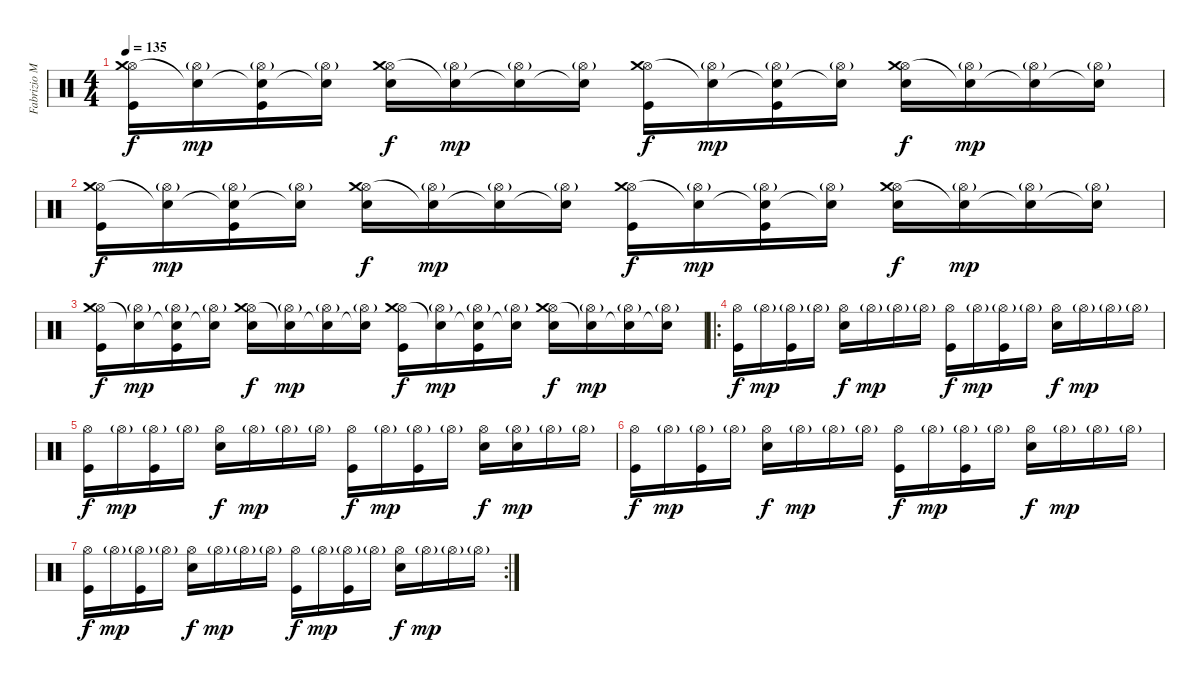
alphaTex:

\track ("Fabrizio Moretti" "Fabrizio M") {instrument percussion}
\staff {score}
\articulation defaults
\ts (4 4)
\tempo 135
\clef neutral
\ks c
("Hi-Hat (open)" "Crash medium (hit)" "Kick (hit)").16{dy f} ("Hi-Hat (open)"{g} "Snare (hit)"{t}).16{dy mp} ("Hi-Hat (open)"{g} "Snare (hit)"{t} "Kick (hit)").16 ("Hi-Hat (open)"{g} "Snare (hit)"{t}).16 ("Hi-Hat (open)" "Crash medium (hit)" "Electric Snare (hit)").16{dy f} ("Hi-Hat (open)"{g} "Snare (hit)"{t}).16{dy mp} ("Hi-Hat (open)"{g} "Snare (hit)"{t}).16 ("Hi-Hat (open)"{g} "Snare (hit)"{t}).16 ("Hi-Hat (open)" "Crash medium (hit)" "Kick (hit)").16{dy f} ("Hi-Hat (open)"{g} "Snare (hit)"{t}).16{dy mp} ("Hi-Hat (open)"{g} "Snare (hit)"{t} "Kick (hit)").16 ("Hi-Hat (open)"{g} "Snare (hit)"{t}).16 ("Hi-Hat (open)" "Crash medium (hit)" "Electric Snare (hit)").16{dy f} ("Hi-Hat (open)"{g} "Snare (hit)"{t}).16{dy mp} ("Hi-Hat (open)"{g} "Snare (hit)"{t}).16 ("Hi-Hat (open)"{g} "Snare (hit)"{t}).16 |
("Hi-Hat (open)" "Crash medium (hit)" "Kick (hit)").16{dy f} ("Hi-Hat (open)"{g} "Snare (hit)"{t}).16{dy mp} ("Hi-Hat (open)"{g} "Snare (hit)"{t} "Kick (hit)").16 ("Hi-Hat (open)"{g} "Snare (hit)"{t}).16 ("Hi-Hat (open)" "Crash medium (hit)" "Electric Snare (hit)").16{dy f} ("Hi-Hat (open)"{g} "Snare (hit)"{t}).16{dy mp} ("Hi-Hat (open)"{g} "Snare (hit)"{t}).16 ("Hi-Hat (open)"{g} "Snare (hit)"{t}).16 ("Hi-Hat (open)" "Crash medium (hit)" "Kick (hit)").16{dy f} ("Hi-Hat (open)"{g} "Snare (hit)"{t}).16{dy mp} ("Hi-Hat (open)"{g} "Snare (hit)"{t} "Kick (hit)").16 ("Hi-Hat (open)"{g} "Snare (hit)"{t}).16 ("Hi-Hat (open)" "Crash medium (hit)" "Electric Snare (hit)").16{dy f} ("Hi-Hat (open)"{g} "Snare (hit)"{t}).16{dy mp} ("Hi-Hat (open)"{g} "Snare (hit)"{t}).16 ("Hi-Hat (open)"{g} "Snare (hit)"{t}).16 |
("Hi-Hat (open)" "Crash medium (hit)" "Kick (hit)").16{dy f} ("Hi-Hat (open)"{g} "Snare (hit)"{t}).16{dy mp} ("Hi-Hat (open)"{g} "Snare (hit)"{t} "Kick (hit)").16 ("Hi-Hat (open)"{g} "Snare (hit)"{t}).16 ("Hi-Hat (open)" "Crash medium (hit)" "Electric Snare (hit)").16{dy f} ("Hi-Hat (open)"{g} "Snare (hit)"{t}).16{dy mp} ("Hi-Hat (open)"{g} "Snare (hit)"{t}).16 ("Hi-Hat (open)"{g} "Snare (hit)"{t}).16 ("Hi-Hat (open)" "Crash medium (hit)" "Kick (hit)").16{dy f} ("Hi-Hat (open)"{g} "Snare (hit)"{t}).16{dy mp} ("Hi-Hat (open)"{g} "Snare (hit)"{t} "Kick (hit)").16 ("Hi-Hat (open)"{g} "Snare (hit)"{t}).16 ("Hi-Hat (open)" "Crash medium (hit)" "Electric Snare (hit)").16{dy f} ("Hi-Hat (open)"{g} "Snare (hit)"{t}).16{dy mp} ("Hi-Hat (open)"{g} "Snare (hit)"{t}).16 ("Hi-Hat (open)"{g} "Snare (hit)"{t}).16 |
\ro
("Hi-Hat (open)" "Kick (hit)").16{dy f} "Hi-Hat (open)"{g}.16{dy mp} ("Hi-Hat (open)"{g} "Kick (hit)").16 "Hi-Hat (open)"{g}.16 ("Hi-Hat (open)" "Electric Snare (hit)").16{dy f} "Hi-Hat (open)"{g}.16{dy mp} "Hi-Hat (open)"{g}.16 "Hi-Hat (open)"{g}.16 ("Hi-Hat (open)" "Kick (hit)").16{dy f} "Hi-Hat (open)"{g}.16{dy mp} ("Hi-Hat (open)"{g} "Kick (hit)").16 "Hi-Hat (open)"{g}.16 ("Hi-Hat (open)" "Electric Snare (hit)").16{dy f} "Hi-Hat (open)"{g}.16{dy mp} "Hi-Hat (open)"{g}.16 "Hi-Hat (open)"{g}.16 |
("Hi-Hat (open)" "Kick (hit)").16{dy f} "Hi-Hat (open)"{g}.16{dy mp} ("Hi-Hat (open)"{g} "Kick (hit)").16 "Hi-Hat (open)"{g}.16 ("Hi-Hat (open)" "Electric Snare (hit)").16{dy f} "Hi-Hat (open)"{g}.16{dy mp} "Hi-Hat (open)"{g}.16 "Hi-Hat (open)"{g}.16 ("Hi-Hat (open)" "Kick (hit)").16{dy f} "Hi-Hat (open)"{g}.16{dy mp} ("Hi-Hat (open)"{g} "Kick (hit)").16 "Hi-Hat (open)"{g}.16 ("Hi-Hat (open)" "Electric Snare (hit)").16{dy f} ("Hi-Hat (open)"{g} "Electric Snare (hit)").16{dy mp} "Hi-Hat (open)"{g}.16 "Hi-Hat (open)"{g}.16 |
("Hi-Hat (open)" "Kick (hit)").16{dy f} "Hi-Hat (open)"{g}.16{dy mp} ("Hi-Hat (open)"{g} "Kick (hit)").16 "Hi-Hat (open)"{g}.16 ("Hi-Hat (open)" "Electric Snare (hit)").16{dy f} "Hi-Hat (open)"{g}.16{dy mp} "Hi-Hat (open)"{g}.16 "Hi-Hat (open)"{g}.16 ("Hi-Hat (open)" "Kick (hit)").16{dy f} "Hi-Hat (open)"{g}.16{dy mp} ("Hi-Hat (open)"{g} "Kick (hit)").16 "Hi-Hat (open)"{g}.16 ("Hi-Hat (open)" "Electric Snare (hit)").16{dy f} "Hi-Hat (open)"{g}.16{dy mp} "Hi-Hat (open)"{g}.16 "Hi-Hat (open)"{g}.16 |
\rc 2
("Hi-Hat (open)" "Kick (hit)").16{dy f} "Hi-Hat (open)"{g}.16{dy mp} ("Hi-Hat (open)"{g} "Kick (hit)").16 "Hi-Hat (open)"{g}.16 ("Hi-Hat (open)" "Electric Snare (hit)").16{dy f} "Hi-Hat (open)"{g}.16{dy mp} "Hi-Hat (open)"{g}.16 "Hi-Hat (open)"{g}.16 ("Hi-Hat (open)" "Kick (hit)").16{dy f} "Hi-Hat (open)"{g}.16{dy mp} ("Hi-Hat (open)"{g} "Kick (hit)").16 "Hi-Hat (open)"{g}.16 ("Hi-Hat (open)" "Electric Snare (hit)").16{dy f} "Hi-Hat (open)"{g}.16{dy mp} "Hi-Hat (open)"{g}.16 "Hi-Hat (open)"{g}.16
